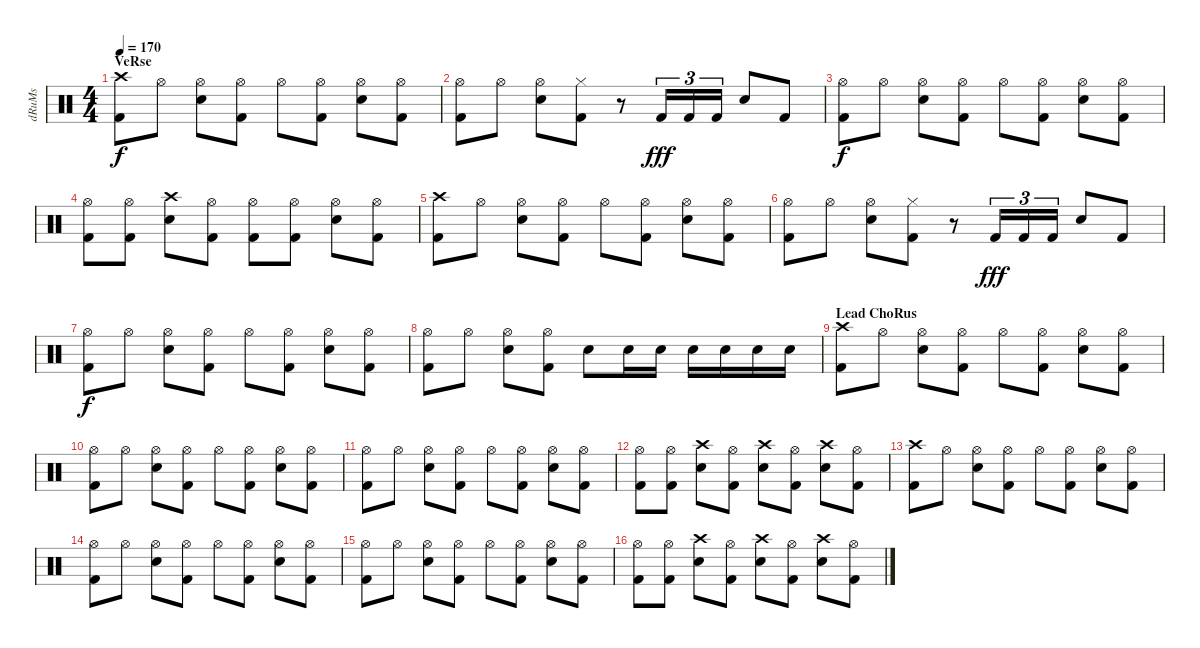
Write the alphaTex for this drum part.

\track ("dRuMs" "dRuMs") {instrument percussion}
\staff {score}
\articulation defaults
\ts (4 4)
\section ("" "VeRse")
\tempo 170
\clef neutral
\ks c
("Crash high (hit)" "Kick (hit) 2").8{dy f} "Hi-Hat (open)".8 ("Hi-Hat (open)" "Electric Snare (hit)").8 ("Hi-Hat (open)" "Kick (hit) 2").8 "Hi-Hat (open)".8 ("Hi-Hat (open)" "Kick (hit) 2").8 ("Hi-Hat (open)" "Electric Snare (hit)").8 ("Hi-Hat (open)" "Kick (hit) 2").8 |
("Hi-Hat (open)" "Kick (hit) 2").8 "Hi-Hat (open)".8 ("Hi-Hat (open)" "Electric Snare (hit)").8 ("Hi-Hat (closed)" "Kick (hit) 2").8 r.8 "Kick (hit) 2".16{tu (3 2) dy fff} "Kick (hit) 2".16{tu (3 2)} "Kick (hit) 2".16{tu (3 2)} "Electric Snare (hit)".8 "Kick (hit) 2".8 |
("Hi-Hat (open)" "Kick (hit) 2").8{dy f} "Hi-Hat (open)".8 ("Hi-Hat (open)" "Electric Snare (hit)").8 ("Hi-Hat (open)" "Kick (hit) 2").8 "Hi-Hat (open)".8 ("Hi-Hat (open)" "Kick (hit) 2").8 ("Hi-Hat (open)" "Electric Snare (hit)").8 ("Hi-Hat (open)" "Kick (hit) 2").8 |
("Hi-Hat (open)" "Kick (hit) 2").8 ("Hi-Hat (open)" "Kick (hit) 2").8 ("Crash high (hit)" "Electric Snare (hit)").8 ("Hi-Hat (open)" "Kick (hit) 2").8 ("Hi-Hat (open)" "Kick (hit) 2").8 ("Hi-Hat (open)" "Kick (hit) 2").8 ("Hi-Hat (open)" "Electric Snare (hit)").8 ("Hi-Hat (open)" "Kick (hit) 2").8 |
("Crash high (hit)" "Kick (hit) 2").8 "Hi-Hat (open)".8 ("Hi-Hat (open)" "Electric Snare (hit)").8 ("Hi-Hat (open)" "Kick (hit) 2").8 "Hi-Hat (open)".8 ("Hi-Hat (open)" "Kick (hit) 2").8 ("Hi-Hat (open)" "Electric Snare (hit)").8 ("Hi-Hat (open)" "Kick (hit) 2").8 |
("Hi-Hat (open)" "Kick (hit) 2").8 "Hi-Hat (open)".8 ("Hi-Hat (open)" "Electric Snare (hit)").8 ("Hi-Hat (closed)" "Kick (hit) 2").8 r.8 "Kick (hit) 2".16{tu (3 2) dy fff} "Kick (hit) 2".16{tu (3 2)} "Kick (hit) 2".16{tu (3 2)} "Electric Snare (hit)".8 "Kick (hit) 2".8 |
("Hi-Hat (open)" "Kick (hit) 2").8{dy f} "Hi-Hat (open)".8 ("Hi-Hat (open)" "Electric Snare (hit)").8 ("Hi-Hat (open)" "Kick (hit) 2").8 "Hi-Hat (open)".8 ("Hi-Hat (open)" "Kick (hit) 2").8 ("Hi-Hat (open)" "Electric Snare (hit)").8 ("Hi-Hat (open)" "Kick (hit) 2").8 |
("Hi-Hat (open)" "Kick (hit) 2").8 "Hi-Hat (open)".8 ("Hi-Hat (open)" "Electric Snare (hit)").8 ("Hi-Hat (open)" "Kick (hit) 2").8 "Electric Snare (hit)".8 "Electric Snare (hit)".16 "Electric Snare (hit)".16 "Electric Snare (hit)".16 "Electric Snare (hit)".16 "Electric Snare (hit)".16 "Electric Snare (hit)".16 |
\section ("" "Lead ChoRus")
("Crash high (hit)" "Kick (hit) 2").8 "Hi-Hat (open)".8 ("Hi-Hat (open)" "Electric Snare (hit)").8 ("Hi-Hat (open)" "Kick (hit) 2").8 "Hi-Hat (open)".8 ("Hi-Hat (open)" "Kick (hit) 2").8 ("Hi-Hat (open)" "Electric Snare (hit)").8 ("Hi-Hat (open)" "Kick (hit) 2").8 |
("Hi-Hat (open)" "Kick (hit) 2").8 "Hi-Hat (open)".8 ("Hi-Hat (open)" "Electric Snare (hit)").8 ("Hi-Hat (open)" "Kick (hit) 2").8 "Hi-Hat (open)".8 ("Hi-Hat (open)" "Kick (hit) 2").8 ("Hi-Hat (open)" "Electric Snare (hit)").8 ("Hi-Hat (open)" "Kick (hit) 2").8 |
("Hi-Hat (open)" "Kick (hit) 2").8 "Hi-Hat (open)".8 ("Hi-Hat (open)" "Electric Snare (hit)").8 ("Hi-Hat (open)" "Kick (hit) 2").8 "Hi-Hat (open)".8 ("Hi-Hat (open)" "Kick (hit) 2").8 ("Hi-Hat (open)" "Electric Snare (hit)").8 ("Hi-Hat (open)" "Kick (hit) 2").8 |
("Hi-Hat (open)" "Kick (hit) 2").8 ("Hi-Hat (open)" "Kick (hit) 2").8 ("Crash high (hit)" "Electric Snare (hit)").8 ("Hi-Hat (open)" "Kick (hit) 2").8 ("Crash high (hit)" "Electric Snare (hit)").8 ("Hi-Hat (open)" "Kick (hit) 2").8 ("Crash high (hit)" "Electric Snare (hit)").8 ("Hi-Hat (open)" "Kick (hit) 2").8 |
("Crash high (hit)" "Kick (hit) 2").8 "Hi-Hat (open)".8 ("Hi-Hat (open)" "Electric Snare (hit)").8 ("Hi-Hat (open)" "Kick (hit) 2").8 "Hi-Hat (open)".8 ("Hi-Hat (open)" "Kick (hit) 2").8 ("Hi-Hat (open)" "Electric Snare (hit)").8 ("Hi-Hat (open)" "Kick (hit) 2").8 |
("Hi-Hat (open)" "Kick (hit) 2").8 "Hi-Hat (open)".8 ("Hi-Hat (open)" "Electric Snare (hit)").8 ("Hi-Hat (open)" "Kick (hit) 2").8 "Hi-Hat (open)".8 ("Hi-Hat (open)" "Kick (hit) 2").8 ("Hi-Hat (open)" "Electric Snare (hit)").8 ("Hi-Hat (open)" "Kick (hit) 2").8 |
("Hi-Hat (open)" "Kick (hit) 2").8 "Hi-Hat (open)".8 ("Hi-Hat (open)" "Electric Snare (hit)").8 ("Hi-Hat (open)" "Kick (hit) 2").8 "Hi-Hat (open)".8 ("Hi-Hat (open)" "Kick (hit) 2").8 ("Hi-Hat (open)" "Electric Snare (hit)").8 ("Hi-Hat (open)" "Kick (hit) 2").8 |
("Hi-Hat (open)" "Kick (hit) 2").8 ("Hi-Hat (open)" "Kick (hit) 2").8 ("Crash high (hit)" "Electric Snare (hit)").8 ("Hi-Hat (open)" "Kick (hit) 2").8 ("Crash high (hit)" "Electric Snare (hit)").8 ("Hi-Hat (open)" "Kick (hit) 2").8 ("Crash high (hit)" "Electric Snare (hit)").8 ("Hi-Hat (open)" "Kick (hit) 2").8
